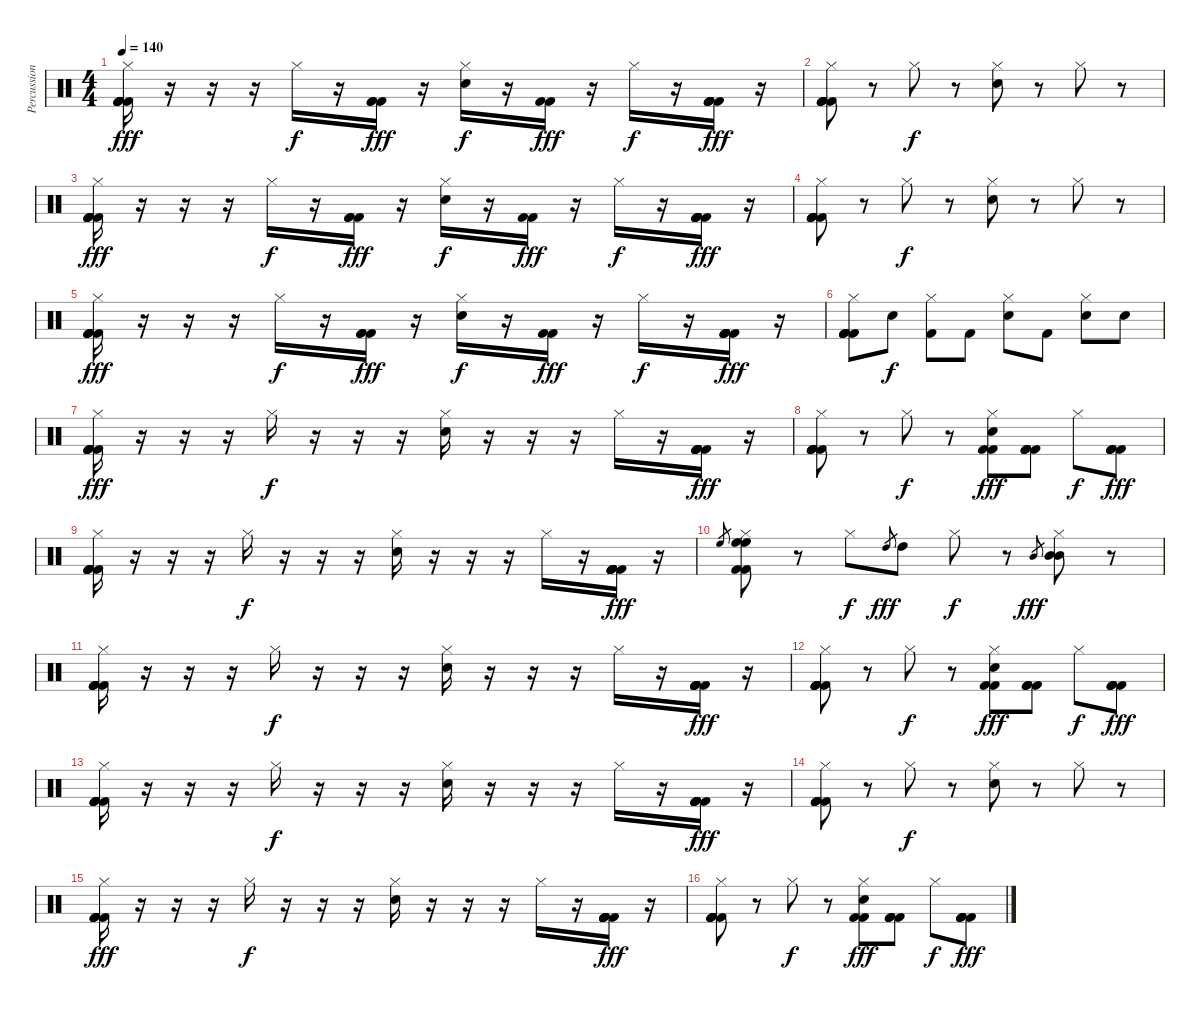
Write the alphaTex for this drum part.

\track ("Percussions" "Percussion") {instrument percussion}
\staff {score}
\articulation defaults
\ts (4 4)
\tempo 140
\clef neutral
\ks c
("Hi-Hat (closed)" "Kick (hit) 2" "Kick (hit) 2" "Kick (hit) 2" "Kick (hit) 2" "Kick (hit) 2").16{dy fff} r.16 r.16 r.16 "Hi-Hat (closed)".16{dy f} r.16 ("Kick (hit) 2" "Kick (hit) 2" "Kick (hit) 2").16{dy fff} r.16 ("Hi-Hat (closed)" "Snare (hit) 2").16{dy f} r.16 ("Kick (hit) 2" "Kick (hit) 2").16{dy fff} r.16 "Hi-Hat (closed)".16{dy f} r.16 ("Kick (hit) 2" "Kick (hit) 2" "Kick (hit) 2" "Kick (hit) 2" "Kick (hit) 2" "Kick (hit) 2").16{dy fff} r.16 |
("Hi-Hat (closed)" "Kick (hit) 2" "Kick (hit) 2" "Kick (hit) 2" "Kick (hit) 2" "Kick (hit) 2").8 r.8 "Hi-Hat (closed)".8{dy f} r.8 ("Hi-Hat (closed)" "Snare (hit) 2").8 r.8 "Hi-Hat (closed)".8 r.8 |
("Hi-Hat (closed)" "Kick (hit) 2" "Kick (hit) 2" "Kick (hit) 2" "Kick (hit) 2" "Kick (hit) 2").16{dy fff} r.16 r.16 r.16 "Hi-Hat (closed)".16{dy f} r.16 ("Kick (hit) 2" "Kick (hit) 2" "Kick (hit) 2").16{dy fff} r.16 ("Hi-Hat (closed)" "Snare (hit) 2").16{dy f} r.16 ("Kick (hit) 2" "Kick (hit) 2").16{dy fff} r.16 "Hi-Hat (closed)".16{dy f} r.16 ("Kick (hit) 2" "Kick (hit) 2" "Kick (hit) 2" "Kick (hit) 2" "Kick (hit) 2" "Kick (hit) 2").16{dy fff} r.16 |
("Hi-Hat (closed)" "Kick (hit) 2" "Kick (hit) 2" "Kick (hit) 2" "Kick (hit) 2" "Kick (hit) 2").8 r.8 "Hi-Hat (closed)".8{dy f} r.8 ("Hi-Hat (closed)" "Snare (hit) 2").8 r.8 "Hi-Hat (closed)".8 r.8 |
("Hi-Hat (closed)" "Kick (hit) 2" "Kick (hit) 2" "Kick (hit) 2" "Kick (hit) 2" "Kick (hit) 2").16{dy fff} r.16 r.16 r.16 "Hi-Hat (closed)".16{dy f} r.16 ("Kick (hit) 2" "Kick (hit) 2" "Kick (hit) 2").16{dy fff} r.16 ("Hi-Hat (closed)" "Snare (hit) 2").16{dy f} r.16 ("Kick (hit) 2" "Kick (hit) 2").16{dy fff} r.16 "Hi-Hat (closed)".16{dy f} r.16 ("Kick (hit) 2" "Kick (hit) 2" "Kick (hit) 2" "Kick (hit) 2" "Kick (hit) 2" "Kick (hit) 2").16{dy fff} r.16 |
("Hi-Hat (closed)" "Kick (hit) 2" "Kick (hit) 2" "Kick (hit) 2" "Kick (hit) 2" "Kick (hit) 2").8 "Snare (hit) 2".8{dy f} ("Hi-Hat (closed)" "Kick (hit) 2").8 "Kick (hit) 2".8 ("Hi-Hat (closed)" "Snare (hit) 2").8 "Kick (hit) 2".8 ("Hi-Hat (closed)" "Snare (hit) 2").8 "Snare (hit) 2".8 |
("Hi-Hat (closed)" "Kick (hit) 2" "Kick (hit) 2" "Kick (hit) 2" "Kick (hit) 2" "Kick (hit) 2").16{dy fff} r.16 r.16 r.16 "Hi-Hat (closed)".16{dy f} r.16 r.16 r.16 ("Hi-Hat (closed)" "Snare (hit) 2").16 r.16 r.16 r.16 "Hi-Hat (closed)".16 r.16 ("Kick (hit) 2" "Kick (hit) 2" "Kick (hit) 2" "Kick (hit) 2" "Kick (hit) 2" "Kick (hit) 2").16{dy fff} r.16 |
("Hi-Hat (closed)" "Kick (hit) 2" "Kick (hit) 2" "Kick (hit) 2" "Kick (hit) 2" "Kick (hit) 2").8 r.8 "Hi-Hat (closed)".8{dy f} r.8 ("Hi-Hat (closed)" "Kick (hit) 2" "Kick (hit) 2" "Snare (hit) 2").8{dy fff} ("Kick (hit) 2" "Kick (hit) 2" "Kick (hit) 2" "Kick (hit) 2").8 "Hi-Hat (closed)".8{dy f} ("Kick (hit) 2" "Kick (hit) 2" "Kick (hit) 2" "Kick (hit) 2").8{dy fff} |
("Hi-Hat (closed)" "Kick (hit) 2" "Kick (hit) 2" "Kick (hit) 2" "Kick (hit) 2" "Kick (hit) 2").16 r.16 r.16 r.16 "Hi-Hat (closed)".16{dy f} r.16 r.16 r.16 ("Hi-Hat (closed)" "Snare (hit) 2").16 r.16 r.16 r.16 "Hi-Hat (closed)".16 r.16 ("Kick (hit) 2" "Kick (hit) 2" "Kick (hit) 2" "Kick (hit) 2" "Kick (hit) 2" "Kick (hit) 2").16{dy fff} r.16 |
"High Floor Tom (hit)".8{gr} ("Hi-Hat (closed)" "High Floor Tom (hit)" "High Floor Tom (hit)" "Kick (hit) 2" "Kick (hit) 2").8 r.8 "Hi-Hat (closed)".8{dy f} "High Tom (hit)".8{gr dy fff} "High Tom (hit)".8 "Hi-Hat (closed)".8{dy f} r.8 "Mid Tom (hit)".8{gr dy fff} ("Hi-Hat (closed)" "Mid Tom (hit)" "Mid Tom (hit)").8 r.8 |
("Hi-Hat (closed)" "Kick (hit) 2" "Kick (hit) 2" "Kick (hit) 2" "Kick (hit) 2" "Kick (hit) 2").16 r.16 r.16 r.16 "Hi-Hat (closed)".16{dy f} r.16 r.16 r.16 ("Hi-Hat (closed)" "Snare (hit) 2").16 r.16 r.16 r.16 "Hi-Hat (closed)".16 r.16 ("Kick (hit) 2" "Kick (hit) 2" "Kick (hit) 2" "Kick (hit) 2" "Kick (hit) 2" "Kick (hit) 2").16{dy fff} r.16 |
("Hi-Hat (closed)" "Kick (hit) 2" "Kick (hit) 2" "Kick (hit) 2" "Kick (hit) 2" "Kick (hit) 2").8 r.8 "Hi-Hat (closed)".8{dy f} r.8 ("Hi-Hat (closed)" "Kick (hit) 2" "Kick (hit) 2" "Snare (hit) 2").8{dy fff} ("Kick (hit) 2" "Kick (hit) 2" "Kick (hit) 2" "Kick (hit) 2").8 "Hi-Hat (closed)".8{dy f} ("Kick (hit) 2" "Kick (hit) 2" "Kick (hit) 2" "Kick (hit) 2").8{dy fff} |
("Hi-Hat (closed)" "Kick (hit) 2" "Kick (hit) 2" "Kick (hit) 2" "Kick (hit) 2" "Kick (hit) 2").16 r.16 r.16 r.16 "Hi-Hat (closed)".16{dy f} r.16 r.16 r.16 ("Hi-Hat (closed)" "Snare (hit) 2").16 r.16 r.16 r.16 "Hi-Hat (closed)".16 r.16 ("Kick (hit) 2" "Kick (hit) 2" "Kick (hit) 2" "Kick (hit) 2" "Kick (hit) 2" "Kick (hit) 2").16{dy fff} r.16 |
("Hi-Hat (closed)" "Kick (hit) 2" "Kick (hit) 2" "Kick (hit) 2" "Kick (hit) 2" "Kick (hit) 2").8 r.8 "Hi-Hat (closed)".8{dy f} r.8 ("Hi-Hat (closed)" "Snare (hit) 2").8 r.8 "Hi-Hat (closed)".8 r.8 |
("Hi-Hat (closed)" "Kick (hit) 2" "Kick (hit) 2" "Kick (hit) 2" "Kick (hit) 2" "Kick (hit) 2").16{dy fff} r.16 r.16 r.16 "Hi-Hat (closed)".16{dy f} r.16 r.16 r.16 ("Hi-Hat (closed)" "Snare (hit) 2").16 r.16 r.16 r.16 "Hi-Hat (closed)".16 r.16 ("Kick (hit) 2" "Kick (hit) 2" "Kick (hit) 2" "Kick (hit) 2" "Kick (hit) 2" "Kick (hit) 2").16{dy fff} r.16 |
("Hi-Hat (closed)" "Kick (hit) 2" "Kick (hit) 2" "Kick (hit) 2" "Kick (hit) 2" "Kick (hit) 2").8 r.8 "Hi-Hat (closed)".8{dy f} r.8 ("Hi-Hat (closed)" "Kick (hit) 2" "Kick (hit) 2" "Snare (hit) 2").8{dy fff} ("Kick (hit) 2" "Kick (hit) 2" "Kick (hit) 2" "Kick (hit) 2").8 "Hi-Hat (closed)".8{dy f} ("Kick (hit) 2" "Kick (hit) 2" "Kick (hit) 2" "Kick (hit) 2").8{dy fff}
